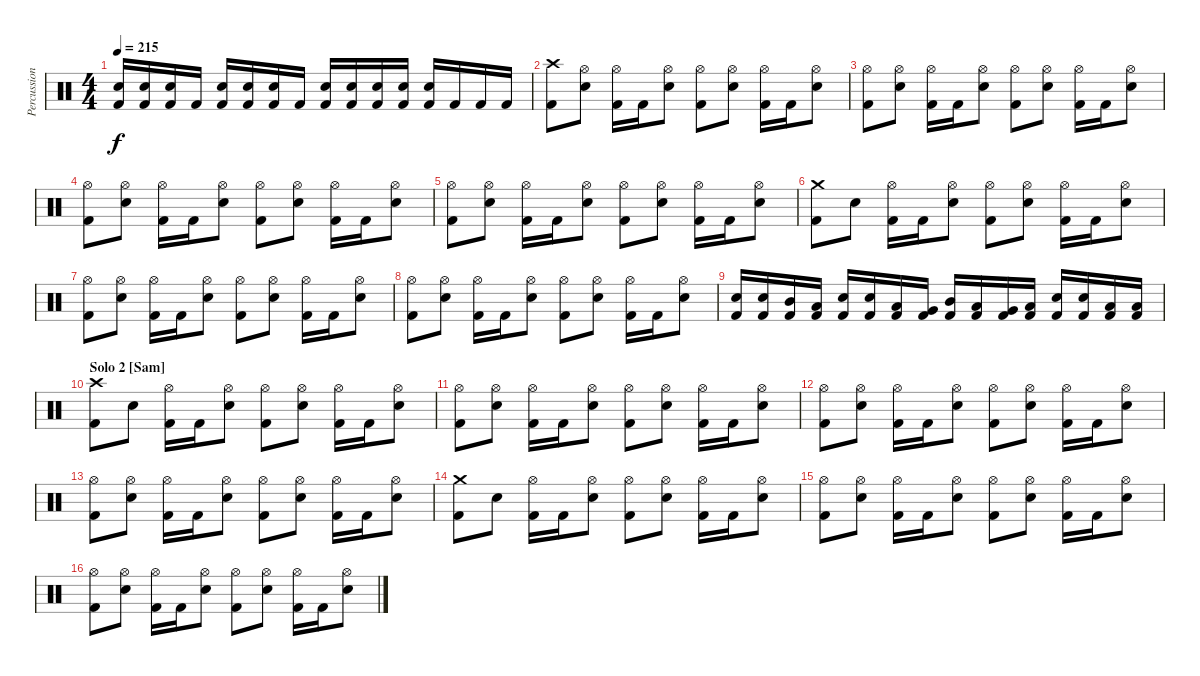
\track ("Percussion" "Percussion") {instrument percussion}
\staff {score}
\articulation defaults
\ts (4 4)
\tempo 215
\clef neutral
\ks c
("Snare (hit) 2" "Kick (hit) 2").16{dy f} ("Snare (hit) 2" "Kick (hit) 2").16 ("Snare (hit) 2" "Kick (hit) 2").16 "Kick (hit) 2".16 ("Snare (hit) 2" "Kick (hit) 2").16 ("Snare (hit) 2" "Kick (hit) 2").16 ("Snare (hit) 2" "Kick (hit) 2").16 "Kick (hit) 2".16 ("Snare (hit) 2" "Kick (hit) 2").16 ("Snare (hit) 2" "Kick (hit) 2").16 ("Snare (hit) 2" "Kick (hit) 2").16 ("Snare (hit) 2" "Kick (hit) 2").16 ("Snare (hit) 2" "Kick (hit) 2").16 "Kick (hit) 2".16 "Kick (hit) 2".16 "Kick (hit) 2".16 |
("Crash high (hit)" "Kick (hit) 2").8 ("Hi-Hat (open)" "Snare (hit) 2").8 ("Hi-Hat (open)" "Kick (hit) 2").16 "Kick (hit) 2".16 ("Hi-Hat (open)" "Snare (hit) 2").8 ("Hi-Hat (open)" "Kick (hit) 2").8 ("Hi-Hat (open)" "Snare (hit) 2").8 ("Hi-Hat (open)" "Kick (hit) 2").16 "Kick (hit) 2".16 ("Hi-Hat (open)" "Snare (hit) 2").8 |
("Hi-Hat (open)" "Kick (hit) 2").8 ("Hi-Hat (open)" "Snare (hit) 2").8 ("Hi-Hat (open)" "Kick (hit) 2").16 "Kick (hit) 2".16 ("Hi-Hat (open)" "Snare (hit) 2").8 ("Hi-Hat (open)" "Kick (hit) 2").8 ("Hi-Hat (open)" "Snare (hit) 2").8 ("Hi-Hat (open)" "Kick (hit) 2").16 "Kick (hit) 2".16 ("Hi-Hat (open)" "Snare (hit) 2").8 |
("Hi-Hat (open)" "Kick (hit) 2").8 ("Hi-Hat (open)" "Snare (hit) 2").8 ("Hi-Hat (open)" "Kick (hit) 2").16 "Kick (hit) 2".16 ("Hi-Hat (open)" "Snare (hit) 2").8 ("Hi-Hat (open)" "Kick (hit) 2").8 ("Hi-Hat (open)" "Snare (hit) 2").8 ("Hi-Hat (open)" "Kick (hit) 2").16 "Kick (hit) 2".16 ("Hi-Hat (open)" "Snare (hit) 2").8 |
("Hi-Hat (open)" "Kick (hit) 2").8 ("Hi-Hat (open)" "Snare (hit) 2").8 ("Hi-Hat (open)" "Kick (hit) 2").16 "Kick (hit) 2".16 ("Hi-Hat (open)" "Snare (hit) 2").8 ("Hi-Hat (open)" "Kick (hit) 2").8 ("Hi-Hat (open)" "Snare (hit) 2").8 ("Hi-Hat (open)" "Kick (hit) 2").16 "Kick (hit) 2".16 ("Hi-Hat (open)" "Snare (hit) 2").8 |
("Crash medium (hit)" "Kick (hit) 2").8 "Snare (hit) 2".8 ("Hi-Hat (open)" "Kick (hit) 2").16 "Kick (hit) 2".16 ("Hi-Hat (open)" "Snare (hit) 2").8 ("Hi-Hat (open)" "Kick (hit) 2").8 ("Hi-Hat (open)" "Snare (hit) 2").8 ("Hi-Hat (open)" "Kick (hit) 2").16 "Kick (hit) 2".16 ("Hi-Hat (open)" "Snare (hit) 2").8 |
("Hi-Hat (open)" "Kick (hit) 2").8 ("Hi-Hat (open)" "Snare (hit) 2").8 ("Hi-Hat (open)" "Kick (hit) 2").16 "Kick (hit) 2".16 ("Hi-Hat (open)" "Snare (hit) 2").8 ("Hi-Hat (open)" "Kick (hit) 2").8 ("Hi-Hat (open)" "Snare (hit) 2").8 ("Hi-Hat (open)" "Kick (hit) 2").16 "Kick (hit) 2".16 ("Hi-Hat (open)" "Snare (hit) 2").8 |
("Hi-Hat (open)" "Kick (hit) 2").8 ("Hi-Hat (open)" "Snare (hit) 2").8 ("Hi-Hat (open)" "Kick (hit) 2").16 "Kick (hit) 2".16 ("Hi-Hat (open)" "Snare (hit) 2").8 ("Hi-Hat (open)" "Kick (hit) 2").8 ("Hi-Hat (open)" "Snare (hit) 2").8 ("Hi-Hat (open)" "Kick (hit) 2").16 "Kick (hit) 2".16 ("Hi-Hat (open)" "Snare (hit) 2").8 |
("Snare (hit) 2" "Kick (hit) 2").16 ("Snare (hit) 2" "Kick (hit) 2").16 ("Mid Tom (hit)" "Kick (hit) 2").16 ("Low Tom (hit)" "Kick (hit) 2").16 ("Snare (hit) 2" "Kick (hit) 2").16 ("Snare (hit) 2" "Kick (hit) 2").16 ("Low Tom (hit)" "Kick (hit) 2").16 ("Very Low Tom (hit)" "Kick (hit) 2").16 ("Mid Tom (hit)" "Kick (hit) 2").16 ("Low Tom (hit)" "Kick (hit) 2").16 ("Very Low Tom (hit)" "Kick (hit) 2").16 ("Low Floor Tom (hit)" "Kick (hit) 2").16 ("Snare (hit) 2" "Kick (hit) 2").16 ("Snare (hit) 2" "Kick (hit) 2").16 ("Low Tom (hit)" "Kick (hit) 2").16 ("Low Tom (hit)" "Kick (hit) 2").16 |
\section ("" "Solo 2 [Sam]")
("Crash high (hit)" "Kick (hit) 2").8 "Snare (hit) 2".8 ("Hi-Hat (open)" "Kick (hit) 2").16 "Kick (hit) 2".16 ("Hi-Hat (open)" "Snare (hit) 2").8 ("Hi-Hat (open)" "Kick (hit) 2").8 ("Hi-Hat (open)" "Snare (hit) 2").8 ("Hi-Hat (open)" "Kick (hit) 2").16 "Kick (hit) 2".16 ("Hi-Hat (open)" "Snare (hit) 2").8 |
("Hi-Hat (open)" "Kick (hit) 2").8 ("Hi-Hat (open)" "Snare (hit) 2").8 ("Hi-Hat (open)" "Kick (hit) 2").16 "Kick (hit) 2".16 ("Hi-Hat (open)" "Snare (hit) 2").8 ("Hi-Hat (open)" "Kick (hit) 2").8 ("Hi-Hat (open)" "Snare (hit) 2").8 ("Hi-Hat (open)" "Kick (hit) 2").16 "Kick (hit) 2".16 ("Hi-Hat (open)" "Snare (hit) 2").8 |
("Hi-Hat (open)" "Kick (hit) 2").8 ("Hi-Hat (open)" "Snare (hit) 2").8 ("Hi-Hat (open)" "Kick (hit) 2").16 "Kick (hit) 2".16 ("Hi-Hat (open)" "Snare (hit) 2").8 ("Hi-Hat (open)" "Kick (hit) 2").8 ("Hi-Hat (open)" "Snare (hit) 2").8 ("Hi-Hat (open)" "Kick (hit) 2").16 "Kick (hit) 2".16 ("Hi-Hat (open)" "Snare (hit) 2").8 |
("Hi-Hat (open)" "Kick (hit) 2").8 ("Hi-Hat (open)" "Snare (hit) 2").8 ("Hi-Hat (open)" "Kick (hit) 2").16 "Kick (hit) 2".16 ("Hi-Hat (open)" "Snare (hit) 2").8 ("Hi-Hat (open)" "Kick (hit) 2").8 ("Hi-Hat (open)" "Snare (hit) 2").8 ("Hi-Hat (open)" "Kick (hit) 2").16 "Kick (hit) 2".16 ("Hi-Hat (open)" "Snare (hit) 2").8 |
("Crash medium (hit)" "Kick (hit) 2").8 "Snare (hit) 2".8 ("Hi-Hat (open)" "Kick (hit) 2").16 "Kick (hit) 2".16 ("Hi-Hat (open)" "Snare (hit) 2").8 ("Hi-Hat (open)" "Kick (hit) 2").8 ("Hi-Hat (open)" "Snare (hit) 2").8 ("Hi-Hat (open)" "Kick (hit) 2").16 "Kick (hit) 2".16 ("Hi-Hat (open)" "Snare (hit) 2").8 |
("Hi-Hat (open)" "Kick (hit) 2").8 ("Hi-Hat (open)" "Snare (hit) 2").8 ("Hi-Hat (open)" "Kick (hit) 2").16 "Kick (hit) 2".16 ("Hi-Hat (open)" "Snare (hit) 2").8 ("Hi-Hat (open)" "Kick (hit) 2").8 ("Hi-Hat (open)" "Snare (hit) 2").8 ("Hi-Hat (open)" "Kick (hit) 2").16 "Kick (hit) 2".16 ("Hi-Hat (open)" "Snare (hit) 2").8 |
("Hi-Hat (open)" "Kick (hit) 2").8 ("Hi-Hat (open)" "Snare (hit) 2").8 ("Hi-Hat (open)" "Kick (hit) 2").16 "Kick (hit) 2".16 ("Hi-Hat (open)" "Snare (hit) 2").8 ("Hi-Hat (open)" "Kick (hit) 2").8 ("Hi-Hat (open)" "Snare (hit) 2").8 ("Hi-Hat (open)" "Kick (hit) 2").16 "Kick (hit) 2".16 ("Hi-Hat (open)" "Snare (hit) 2").8
